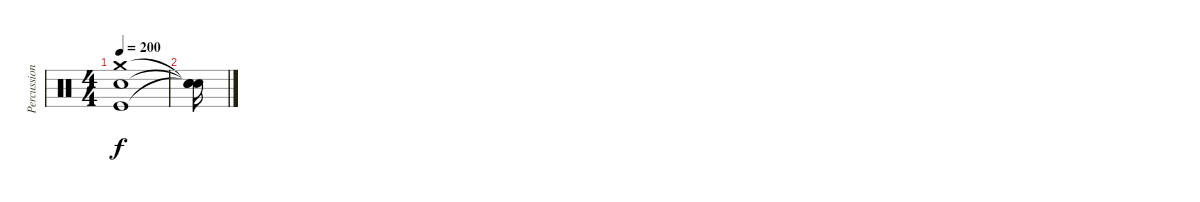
\track ("Percussion" "Percussion") {instrument percussion}
\staff {score}
\articulation defaults
\ts (4 4)
\tempo 200
\clef neutral
\ks c
("Kick (hit)" "Snare (hit) 2" "Crash medium (hit)").1{dy f} |
("Snare (hit)"{t} "Snare (hit)"{t} "Snare (hit)"{t}).16
